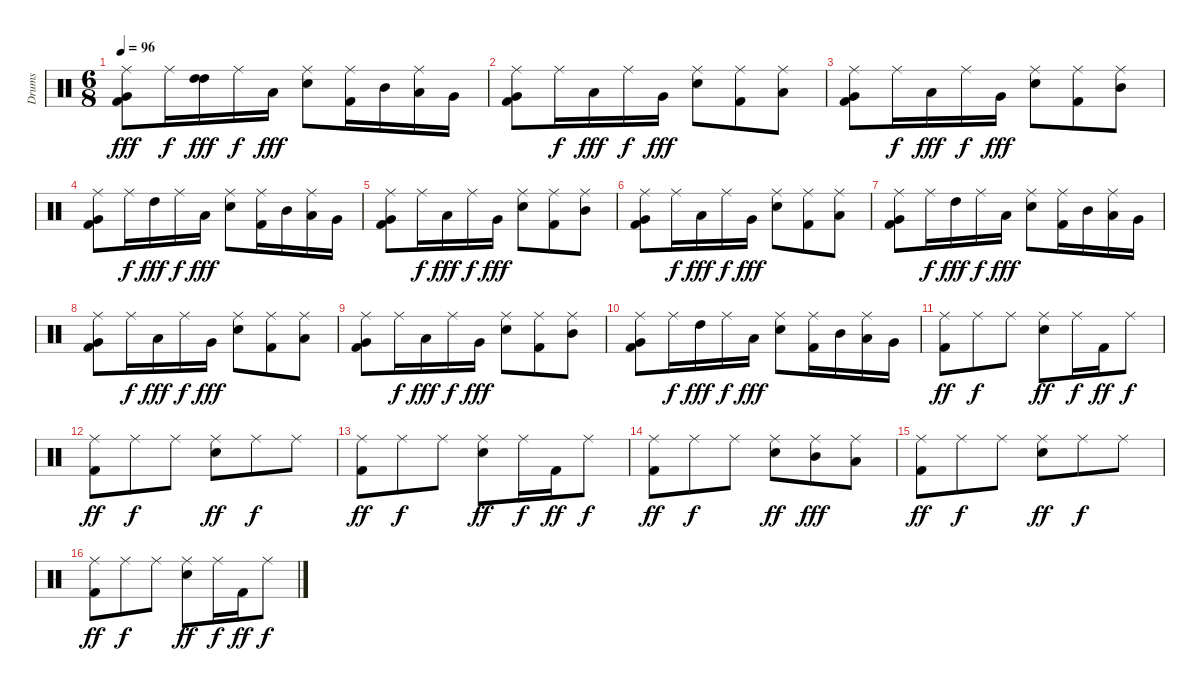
\track ("Drums" "Drums") {instrument percussion}
\staff {score}
\articulation defaults
\ts (6 8)
\tempo 96
\clef neutral
\ks c
("Ride (middle)" "Very Low Tom (hit)" "Kick (hit) 2").8{dy fff} "Ride (middle)".16{dy f} ("High Tom (hit)" "High Tom (hit)").16{dy fff} "Ride (middle)".16{dy f} "Low Tom (hit)".16{dy fff} ("Ride (middle)" "Electric Snare (hit)").8 ("Ride (middle)" "Kick (hit) 2").16 "Mid Tom (hit)".16 ("Ride (middle)" "Low Tom (hit)").16 "Very Low Tom (hit)".16 |
("Ride (middle)" "Very Low Tom (hit)" "Kick (hit) 2").8 "Ride (middle)".16{dy f} "Low Tom (hit)".16{dy fff} "Ride (middle)".16{dy f} "Very Low Tom (hit)".16{dy fff} ("Ride (middle)" "Electric Snare (hit)").8 ("Ride (middle)" "Kick (hit) 2").8 ("Ride (middle)" "Low Tom (hit)").8 |
("Ride (middle)" "Very Low Tom (hit)" "Kick (hit) 2").8 "Ride (middle)".16{dy f} "Low Tom (hit)".16{dy fff} "Ride (middle)".16{dy f} "Very Low Tom (hit)".16{dy fff} ("Ride (middle)" "Electric Snare (hit)").8 ("Ride (middle)" "Kick (hit) 2").8 ("Ride (middle)" "Mid Tom (hit)").8 |
("Ride (middle)" "Kick (hit) 2" "Very Low Tom (hit)").8 "Ride (middle)".16{dy f} "High Tom (hit)".16{dy fff} "Ride (middle)".16{dy f} "Low Tom (hit)".16{dy fff} ("Ride (middle)" "Electric Snare (hit)").8 ("Ride (middle)" "Kick (hit) 2").16 "Mid Tom (hit)".16 ("Ride (middle)" "Low Tom (hit)").16 "Very Low Tom (hit)".16 |
("Ride (middle)" "Very Low Tom (hit)" "Kick (hit) 2").8 "Ride (middle)".16{dy f} "Low Tom (hit)".16{dy fff} "Ride (middle)".16{dy f} "Very Low Tom (hit)".16{dy fff} ("Ride (middle)" "Electric Snare (hit)").8 ("Ride (middle)" "Kick (hit) 2").8 ("Ride (middle)" "Mid Tom (hit)").8 |
("Ride (middle)" "Very Low Tom (hit)" "Kick (hit) 2").8 "Ride (middle)".16{dy f} "Low Tom (hit)".16{dy fff} "Ride (middle)".16{dy f} "Very Low Tom (hit)".16{dy fff} ("Ride (middle)" "Electric Snare (hit)").8 ("Ride (middle)" "Kick (hit) 2").8 ("Ride (middle)" "Low Tom (hit)").8 |
("Ride (middle)" "Kick (hit) 2" "Very Low Tom (hit)").8 "Ride (middle)".16{dy f} "High Tom (hit)".16{dy fff} "Ride (middle)".16{dy f} "Low Tom (hit)".16{dy fff} ("Ride (middle)" "Electric Snare (hit)").8 ("Ride (middle)" "Kick (hit) 2").16 "Mid Tom (hit)".16 ("Ride (middle)" "Low Tom (hit)").16 "Very Low Tom (hit)".16 |
("Ride (middle)" "Very Low Tom (hit)" "Kick (hit) 2").8 "Ride (middle)".16{dy f} "Low Tom (hit)".16{dy fff} "Ride (middle)".16{dy f} "Very Low Tom (hit)".16{dy fff} ("Ride (middle)" "Electric Snare (hit)").8 ("Ride (middle)" "Kick (hit) 2").8 ("Ride (middle)" "Low Tom (hit)").8 |
("Ride (middle)" "Very Low Tom (hit)" "Kick (hit) 2").8 "Ride (middle)".16{dy f} "Low Tom (hit)".16{dy fff} "Ride (middle)".16{dy f} "Very Low Tom (hit)".16{dy fff} ("Ride (middle)" "Electric Snare (hit)").8 ("Ride (middle)" "Kick (hit) 2").8 ("Ride (middle)" "Mid Tom (hit)").8 |
("Ride (middle)" "Kick (hit) 2" "Very Low Tom (hit)").8 "Ride (middle)".16{dy f} "High Tom (hit)".16{dy fff} "Ride (middle)".16{dy f} "Low Tom (hit)".16{dy fff} ("Ride (middle)" "Electric Snare (hit)").8 ("Ride (middle)" "Kick (hit) 2").16 "Mid Tom (hit)".16 ("Low Tom (hit)" "Ride (middle)").16 "Very Low Tom (hit)".16 |
("Kick (hit) 2" "Ride (middle)").8{dy ff} "Ride (middle)".8{dy f} "Ride (middle)".8 ("Electric Snare (hit)" "Ride (middle)").8{dy ff} "Ride (middle)".16{dy f} "Kick (hit) 2".16{dy ff} "Ride (middle)".8{dy f} |
("Kick (hit) 2" "Ride (middle)").8{dy ff} "Ride (middle)".8{dy f} "Ride (middle)".8 ("Electric Snare (hit)" "Ride (middle)").8{dy ff} "Ride (middle)".8{dy f} "Ride (middle)".8 |
("Ride (middle)" "Kick (hit) 2").8{dy ff} "Ride (middle)".8{dy f} "Ride (middle)".8 ("Ride (middle)" "Electric Snare (hit)").8{dy ff} "Ride (middle)".16{dy f} "Kick (hit) 2".16{dy ff} "Ride (middle)".8{dy f} |
("Ride (middle)" "Kick (hit) 2").8{dy ff} "Ride (middle)".8{dy f} "Ride (middle)".8 ("Ride (middle)" "Electric Snare (hit)").8{dy ff} ("Mid Tom (hit)" "Ride (middle)").8{dy fff} ("Low Tom (hit)" "Ride (middle)").8 |
("Ride (middle)" "Kick (hit) 2").8{dy ff} "Ride (middle)".8{dy f} "Ride (middle)".8 ("Ride (middle)" "Electric Snare (hit)").8{dy ff} "Ride (middle)".8{dy f} "Ride (middle)".8 |
("Kick (hit) 2" "Ride (middle)").8{dy ff} "Ride (middle)".8{dy f} "Ride (middle)".8 ("Electric Snare (hit)" "Ride (middle)").8{dy ff} "Ride (middle)".16{dy f} "Kick (hit) 2".16{dy ff} "Ride (middle)".8{dy f}
